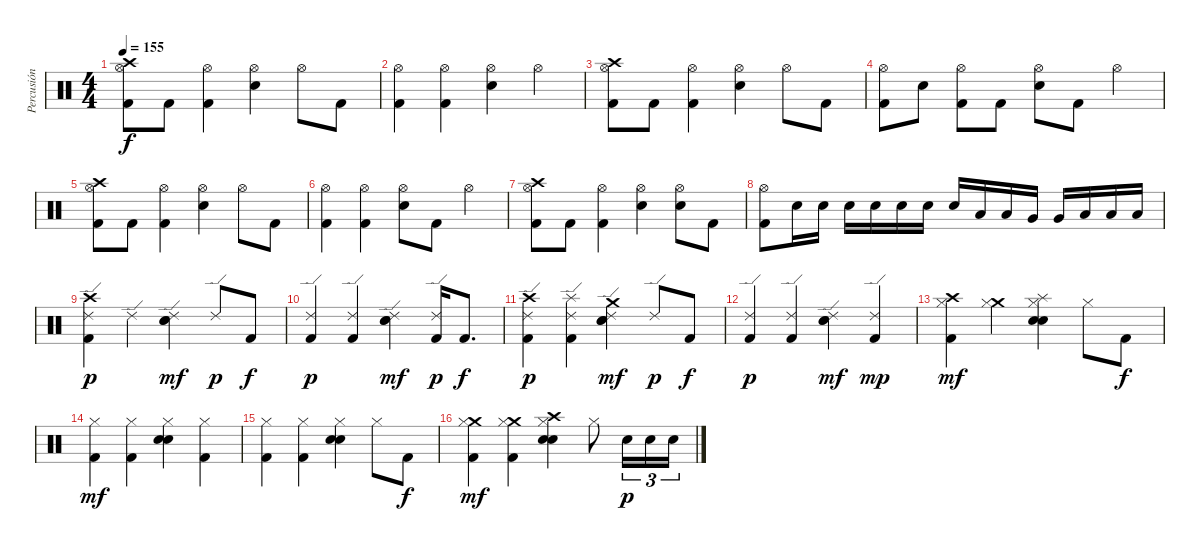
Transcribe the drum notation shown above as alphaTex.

\track ("Percusión" "Percusión") {instrument percussion}
\staff {score}
\articulation defaults
\ts (4 4)
\tempo 155
\clef neutral
\ks c
("Crash high (hit)" "Hi-Hat (open)" "Kick (hit) 2").8{dy f} "Kick (hit) 2".8 ("Hi-Hat (open)" "Kick (hit) 2").4 ("Hi-Hat (open)" "Snare (hit) 2").4 "Hi-Hat (open)".8 "Kick (hit) 2".8 |
("Hi-Hat (open)" "Kick (hit) 2").4 ("Hi-Hat (open)" "Kick (hit) 2").4 ("Hi-Hat (open)" "Snare (hit) 2").4 "Hi-Hat (open)".4 |
("Crash high (hit)" "Hi-Hat (open)" "Kick (hit) 2").8 "Kick (hit) 2".8 ("Hi-Hat (open)" "Kick (hit) 2").4 ("Hi-Hat (open)" "Snare (hit) 2").4 "Hi-Hat (open)".8 "Kick (hit) 2".8 |
("Hi-Hat (open)" "Kick (hit) 2").8 "Snare (hit) 2".8 ("Hi-Hat (open)" "Kick (hit) 2").8 "Kick (hit) 2".8 ("Hi-Hat (open)" "Snare (hit) 2").8 "Kick (hit) 2".8 "Hi-Hat (open)".4 |
("Crash high (hit)" "Hi-Hat (open)" "Kick (hit) 2").8 "Kick (hit) 2".8 ("Hi-Hat (open)" "Kick (hit) 2").4 ("Hi-Hat (open)" "Snare (hit) 2").4 "Hi-Hat (open)".8 "Kick (hit) 2".8 |
("Hi-Hat (open)" "Kick (hit) 2").4 ("Hi-Hat (open)" "Kick (hit) 2").4 ("Hi-Hat (open)" "Snare (hit) 2").8 "Kick (hit) 2".8 "Hi-Hat (open)".4 |
("Crash high (hit)" "Hi-Hat (open)" "Kick (hit) 2").8 "Kick (hit) 2".8 ("Hi-Hat (open)" "Kick (hit) 2").4 ("Hi-Hat (open)" "Snare (hit) 2").4 ("Hi-Hat (open)" "Snare (hit) 2").8 "Kick (hit) 2".8 |
("Hi-Hat (open)" "Kick (hit) 2").8 "Snare (hit) 2".16 "Snare (hit) 2".16 "Snare (hit) 2".16 "Snare (hit) 2".16 "Snare (hit) 2".16 "Snare (hit) 2".16 "Snare (hit) 2".16 "Low Tom (hit)".16 "Low Tom (hit)".16 "Very Low Tom (hit)".16 "Very Low Tom (hit)".16 "Low Floor Tom (hit)".16 "Low Floor Tom (hit)".16 "Low Floor Tom (hit)".16 |
("Crash high (hit)" "Ride (edge) 2" "Kick (hit) 2").4{dy p} "Ride (edge) 2".4 ("Ride (edge) 2" "Electric Snare (hit)" "Hand Clap (hit)").4{dy mf} "Ride (edge) 2".8{dy p} "Kick (hit) 2".8{dy f} |
("Ride (edge) 2" "Kick (hit) 2").4{dy p} ("Ride (edge) 2" "Kick (hit) 2").4 ("Ride (edge) 2" "Electric Snare (hit)" "Hand Clap (hit)").4{dy mf} ("Ride (edge) 2" "Kick (hit) 2").16{dy p} "Kick (hit) 2".8{d dy f} |
("Crash high (hit)" "Ride (edge) 2" "Kick (hit) 2").4{dy p} ("Splash (hit)" "Ride (edge) 2" "Kick (hit) 2").4 ("Crash medium (hit)" "Ride (edge) 2" "Electric Snare (hit)" "Hand Clap (hit)").4{dy mf} "Ride (edge) 2".8{dy p} "Kick (hit) 2".8{dy f} |
("Ride (edge) 2" "Kick (hit) 2").4{dy p} ("Ride (edge) 2" "Kick (hit) 2").4 ("Ride (edge) 2" "Electric Snare (hit)" "Hand Clap (hit)").4{dy mf} ("Ride (edge) 2" "Kick (hit) 2").4{dy mp} |
("Crash high (hit)" "Hi-Hat (closed)" "Kick (hit) 2").4{dy mf} ("Crash medium (hit)" "Hi-Hat (closed)").4 ("Splash (hit)" "Hi-Hat (closed)" "Electric Snare (hit)" "Hand Clap (hit)").4 "Hi-Hat (closed)".8 "Kick (hit) 2".8{dy f} |
("Hi-Hat (closed)" "Kick (hit) 2").4{dy mf} ("Hi-Hat (closed)" "Kick (hit) 2").4 ("Hi-Hat (closed)" "Electric Snare (hit)" "Hand Clap (hit)").4 ("Hi-Hat (closed)" "Kick (hit) 2").4 |
("Hi-Hat (closed)" "Kick (hit) 2").4 ("Hi-Hat (closed)" "Kick (hit) 2").4 ("Hi-Hat (closed)" "Electric Snare (hit)" "Hand Clap (hit)").4 "Hi-Hat (closed)".8 "Kick (hit) 2".8{dy f} |
("Crash medium (hit)" "Hi-Hat (closed)" "Kick (hit) 2").4{dy mf} ("Crash medium (hit)" "Hi-Hat (closed)" "Kick (hit) 2").4 ("Crash high (hit)" "Hi-Hat (closed)" "Electric Snare (hit)" "Hand Clap (hit)").4 "Hi-Hat (closed)".8 "Snare (hit) 2".16{tu (3 2) dy p} "Snare (hit) 2".16{tu (3 2)} "Snare (hit) 2".16{tu (3 2)}
